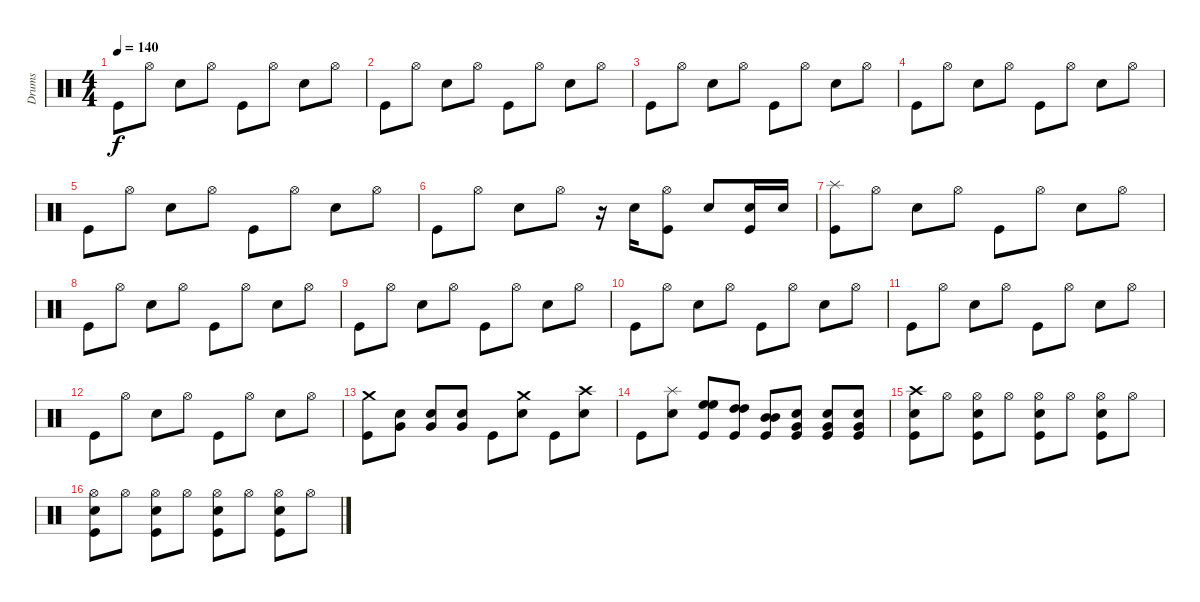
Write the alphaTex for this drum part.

\track ("Drums" "Drums") {instrument percussion}
\staff {score}
\articulation defaults
\ts (4 4)
\tempo 140
\clef neutral
\ks c "Kick (hit)".8{dy f} "Hi-Hat (open)".8 "Snare (hit) 2".8 "Hi-Hat (open)".8 "Kick (hit)".8 "Hi-Hat (open)".8 "Snare (hit) 2".8 "Hi-Hat (open)".8
|
"Kick (hit)".8 "Hi-Hat (open)".8 "Snare (hit) 2".8 "Hi-Hat (open)".8 "Kick (hit)".8 "Hi-Hat (open)".8 "Snare (hit) 2".8 "Hi-Hat (open)".8 |
"Kick (hit)".8 "Hi-Hat (open)".8 "Snare (hit) 2".8 "Hi-Hat (open)".8 "Kick (hit)".8 "Hi-Hat (open)".8 "Snare (hit) 2".8 "Hi-Hat (open)".8 |
"Kick (hit)".8 "Hi-Hat (open)".8 "Snare (hit) 2".8 "Hi-Hat (open)".8 "Kick (hit)".8 "Hi-Hat (open)".8 "Snare (hit) 2".8 "Hi-Hat (open)".8 |
"Kick (hit)".8 "Hi-Hat (open)".8 "Snare (hit) 2".8 "Hi-Hat (open)".8 "Kick (hit)".8 "Hi-Hat (open)".8 "Snare (hit) 2".8 "Hi-Hat (open)".8 |
"Kick (hit)".8 "Hi-Hat (open)".8 "Snare (hit) 2".8 "Hi-Hat (open)".8 r.16 "Snare (hit) 2".16 ("Hi-Hat (open)" "Kick (hit)").8 "Snare (hit) 2".8 ("Snare (hit) 2" "Kick (hit)").16 "Snare (hit) 2".16 |
("Splash (hit)" "Kick (hit)").8 "Hi-Hat (open)".8 "Snare (hit) 2".8 "Hi-Hat (open)".8 "Kick (hit)".8 "Hi-Hat (open)".8 "Snare (hit) 2".8 "Hi-Hat (open)".8 |
"Kick (hit)".8 "Hi-Hat (open)".8 "Snare (hit) 2".8 "Hi-Hat (open)".8 "Kick (hit)".8 "Hi-Hat (open)".8 "Snare (hit) 2".8 "Hi-Hat (open)".8 |
"Kick (hit)".8 "Hi-Hat (open)".8 "Snare (hit) 2".8 "Hi-Hat (open)".8 "Kick (hit)".8 "Hi-Hat (open)".8 "Snare (hit) 2".8 "Hi-Hat (open)".8 |
"Kick (hit)".8 "Hi-Hat (open)".8 "Snare (hit) 2".8 "Hi-Hat (open)".8 "Kick (hit)".8 "Hi-Hat (open)".8 "Snare (hit) 2".8 "Hi-Hat (open)".8 |
"Kick (hit)".8 "Hi-Hat (open)".8 "Snare (hit) 2".8 "Hi-Hat (open)".8 "Kick (hit)".8 "Hi-Hat (open)".8 "Snare (hit) 2".8 "Hi-Hat (open)".8 |
"Kick (hit)".8 "Hi-Hat (open)".8 "Snare (hit) 2".8 "Hi-Hat (open)".8 "Kick (hit)".8 "Hi-Hat (open)".8 "Snare (hit) 2".8 "Hi-Hat (open)".8 |
("Crash medium (hit)" "Kick (hit)").8 ("Snare (hit) 2" "Very Low Tom (hit)").8 ("Snare (hit) 2" "Very Low Tom (hit)").8 ("Snare (hit) 2" "Very Low Tom (hit)").8 "Kick (hit)".8 ("Crash medium (hit)" "Snare (hit) 2").8 "Kick (hit)".8 ("Crash high (hit)" "Snare (hit) 2").8 |
"Kick (hit)".8 ("Splash (hit)" "Snare (hit) 2").8 ("High Floor Tom (hit)" "High Floor Tom (hit)" "Kick (hit)").8 ("High Tom (hit)" "High Tom (hit)" "Kick (hit)").8 ("Mid Tom (hit)" "Mid Tom (hit)" "Kick (hit)").8 ("Very Low Tom (hit)" "Snare (hit) 2" "Kick (hit)").8 ("Very Low Tom (hit)" "Snare (hit) 2" "Kick (hit)").8 ("Very Low Tom (hit)" "Snare (hit) 2" "Kick (hit)").8 |
("Crash high (hit)" "Snare (hit) 2" "Kick (hit)").8 "Hi-Hat (open)".8 ("Hi-Hat (open)" "Snare (hit) 2" "Kick (hit)").8 "Hi-Hat (open)".8 ("Hi-Hat (open)" "Snare (hit) 2" "Kick (hit)").8 "Hi-Hat (open)".8 ("Hi-Hat (open)" "Snare (hit) 2" "Kick (hit)").8 "Hi-Hat (open)".8 |
("Hi-Hat (open)" "Snare (hit) 2" "Kick (hit)").8 "Hi-Hat (open)".8 ("Hi-Hat (open)" "Snare (hit) 2" "Kick (hit)").8 "Hi-Hat (open)".8 ("Hi-Hat (open)" "Snare (hit) 2" "Kick (hit)").8 "Hi-Hat (open)".8 ("Hi-Hat (open)" "Snare (hit) 2" "Kick (hit)").8 "Hi-Hat (open)".8
